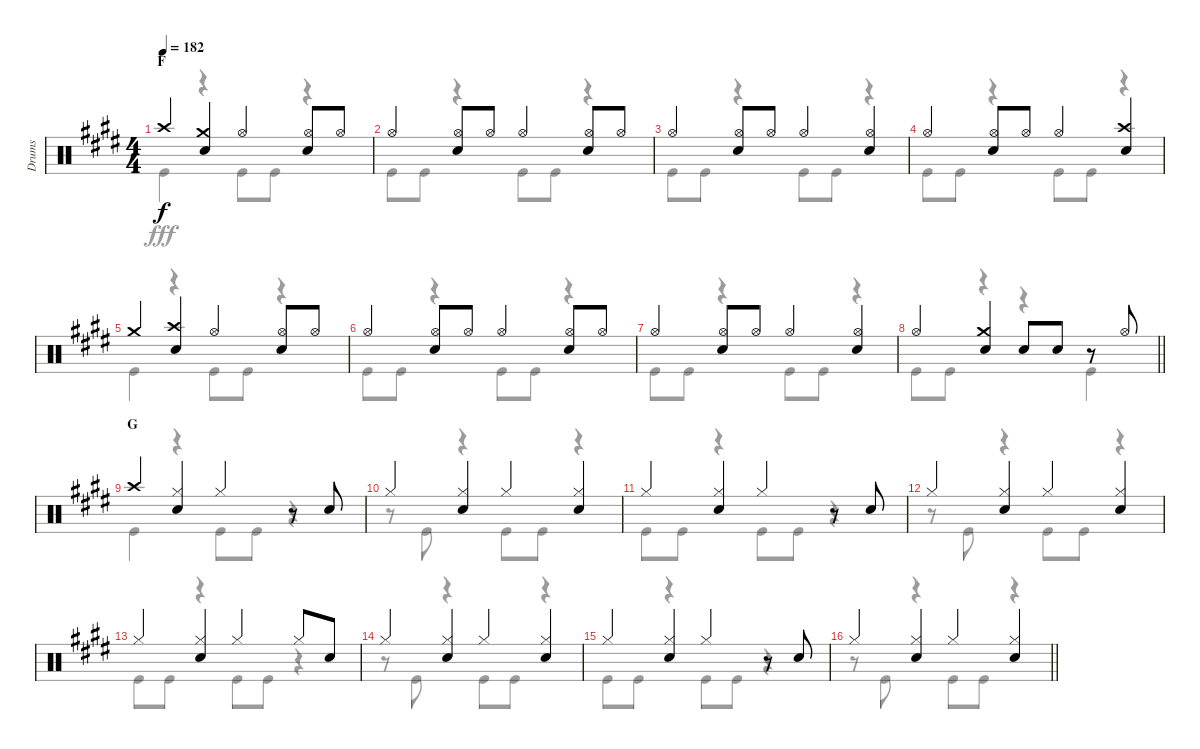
\track ("Drums" "Drums") {instrument percussion}
\staff {score}
\articulation defaults
\voice
\ts (4 4)
\section ("" "F")
\tempo 182
\clef neutral
\ks e "Crash high (hit)".4{dy f}
("Crash medium (hit)" "Snare (hit) 2").4 "Hi-Hat (open)".4 ("Hi-Hat (open)" "Snare (hit) 2").8 "Hi-Hat (open)".8 |
"Hi-Hat (open)".4 ("Hi-Hat (open)" "Snare (hit) 2").8 "Hi-Hat (open)".8 "Hi-Hat (open)".4 ("Hi-Hat (open)" "Snare (hit) 2").8 "Hi-Hat (open)".8 |
"Hi-Hat (open)".4 ("Hi-Hat (open)" "Snare (hit) 2").8 "Hi-Hat (open)".8 "Hi-Hat (open)".4 ("Hi-Hat (open)" "Snare (hit) 2").4 |
"Hi-Hat (open)".4 ("Hi-Hat (open)" "Snare (hit) 2").8 "Hi-Hat (open)".8 "Hi-Hat (open)".4 ("Crash high (hit)" "Snare (hit) 2").4 |
"Crash medium (hit)".4 ("Crash high (hit)" "Snare (hit) 2").4 "Hi-Hat (open)".4 ("Hi-Hat (open)" "Snare (hit) 2").8 "Hi-Hat (open)".8 |
"Hi-Hat (open)".4 ("Hi-Hat (open)" "Snare (hit) 2").8 "Hi-Hat (open)".8 "Hi-Hat (open)".4 ("Hi-Hat (open)" "Snare (hit) 2").8 "Hi-Hat (open)".8 |
"Hi-Hat (open)".4 ("Hi-Hat (open)" "Snare (hit) 2").8 "Hi-Hat (open)".8 "Hi-Hat (open)".4 ("Hi-Hat (open)" "Snare (hit) 2").4 |
\barLineRight lightlight "Hi-Hat (open)".4
("Crash medium (hit)" "Snare (hit) 2").4 "Snare (hit) 2".8 "Snare (hit) 2".8 r.8 "Hi-Hat (open)".8 |
\section ("" "G")
"Crash high (hit)".4 ("Hi-Hat (closed)" "Snare (hit) 2").4 "Hi-Hat (closed)".4 r.8 "Snare (hit) 2".8 |
"Hi-Hat (closed)".4 ("Hi-Hat (closed)" "Snare (hit) 2").4 "Hi-Hat (closed)".4 ("Hi-Hat (closed)" "Snare (hit) 2").4 |
"Hi-Hat (closed)".4 ("Hi-Hat (closed)" "Snare (hit) 2").4 "Hi-Hat (closed)".4 r.8 "Snare (hit) 2".8 |
"Hi-Hat (closed)".4 ("Hi-Hat (closed)" "Snare (hit) 2").4 "Hi-Hat (closed)".4 ("Hi-Hat (closed)" "Snare (hit) 2").4 |
"Hi-Hat (closed)".4 ("Hi-Hat (closed)" "Snare (hit) 2").4 "Hi-Hat (closed)".4 "Hi-Hat (closed)".8 "Snare (hit) 2".8 |
"Hi-Hat (closed)".4 ("Hi-Hat (closed)" "Snare (hit) 2").4 "Hi-Hat (closed)".4 ("Hi-Hat (closed)" "Snare (hit) 2").4 |
"Hi-Hat (closed)".4 ("Hi-Hat (closed)" "Snare (hit) 2").4 "Hi-Hat (closed)".4 r.8 "Snare (hit) 2".8 |
\barLineRight lightlight "Hi-Hat (closed)".4
("Hi-Hat (closed)" "Snare (hit) 2").4 "Hi-Hat (closed)".4 ("Hi-Hat (closed)" "Snare (hit) 2").4
\voice
\clef neutral
\ottava regular
\simile none
\ks e "Kick (hit)".4{dy fff}
r.4 "Kick (hit)".8 "Kick (hit)".8 r.4 |
"Kick (hit)".8 "Kick (hit)".8 r.4 "Kick (hit)".8 "Kick (hit)".8 r.4 |
"Kick (hit)".8 "Kick (hit)".8 r.4 "Kick (hit)".8 "Kick (hit)".8 r.4 |
"Kick (hit)".8 "Kick (hit)".8 r.4 "Kick (hit)".8 "Kick (hit)".8 r.4 |
"Kick (hit)".4 r.4 "Kick (hit)".8 "Kick (hit)".8 r.4 |
"Kick (hit)".8 "Kick (hit)".8 r.4 "Kick (hit)".8 "Kick (hit)".8 r.4 |
"Kick (hit)".8 "Kick (hit)".8 r.4 "Kick (hit)".8 "Kick (hit)".8 r.4 |
\barLineRight lightlight "Kick (hit)".8 "Kick (hit)".8
r.4 r.4 "Kick (hit)".4 |
"Kick (hit)".4 r.4 "Kick (hit)".8 "Kick (hit)".8 r.4 |
r.8 "Kick (hit)".8 r.4 "Kick (hit)".8 "Kick (hit)".8 r.4 |
"Kick (hit)".8 "Kick (hit)".8 r.4 "Kick (hit)".8 "Kick (hit)".8 r.4 |
r.8 "Kick (hit)".8 r.4 "Kick (hit)".8 "Kick (hit)".8 r.4 |
"Kick (hit)".8 "Kick (hit)".8 r.4 "Kick (hit)".8 "Kick (hit)".8 r.4 |
r.8 "Kick (hit)".8 r.4 "Kick (hit)".8 "Kick (hit)".8 r.4 |
"Kick (hit)".8 "Kick (hit)".8 r.4 "Kick (hit)".8 "Kick (hit)".8 r.4 |
\barLineRight lightlight
r.8 "Kick (hit)".8 r.4 "Kick (hit)".8 "Kick (hit)".8 r.4
